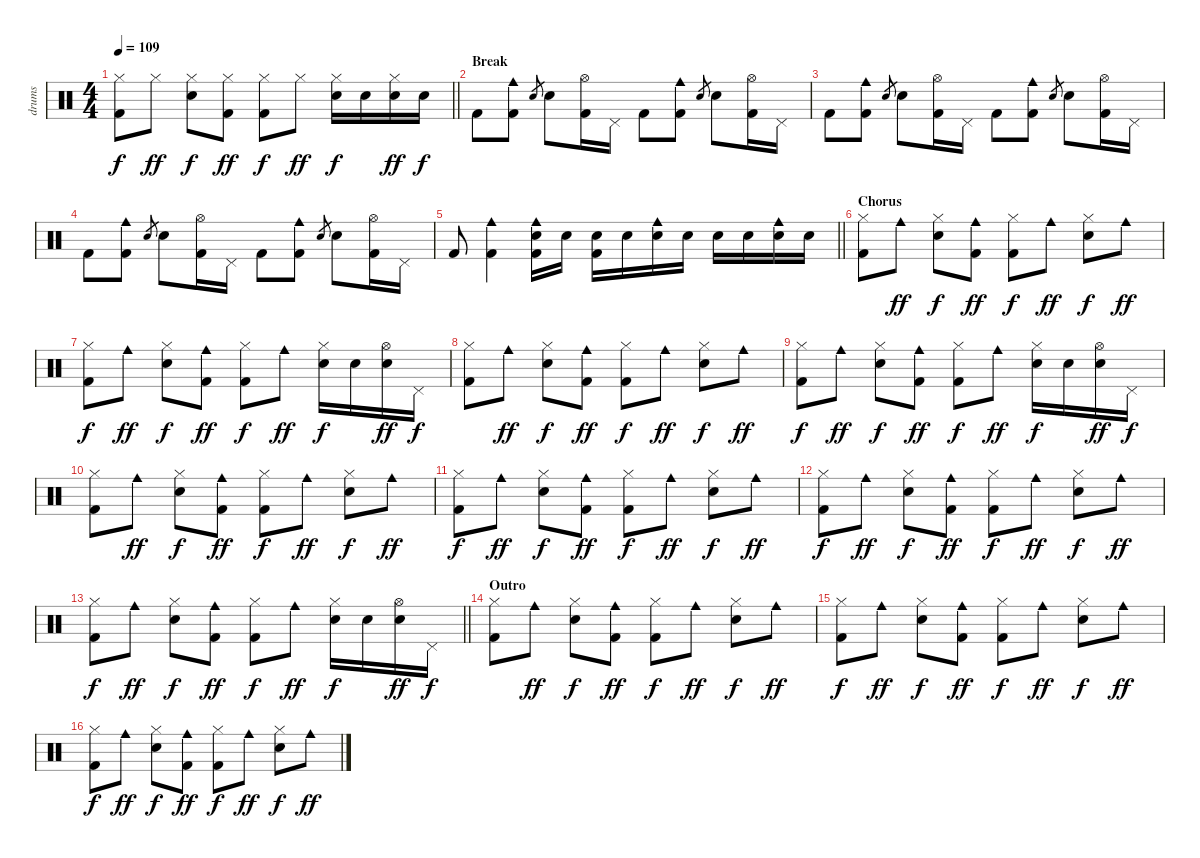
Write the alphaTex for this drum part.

\track ("drums" "drums") {instrument percussion}
\staff {score}
\articulation defaults
\ts (4 4)
\tempo 109
\clef neutral
\barLineRight lightlight
\ks aminor
("Hi-Hat (closed)" "Kick (hit) 2").8{dy f} "Hi-Hat (closed)".8{dy ff} ("Hi-Hat (closed)" "Snare (hit) 2").8{dy f} ("Hi-Hat (closed)" "Kick (hit) 2").8{dy ff} ("Hi-Hat (closed)" "Kick (hit) 2").8{dy f} "Hi-Hat (closed)".8{dy ff} ("Hi-Hat (closed)" "Snare (hit) 2").16{dy f} "Snare (hit) 2".16 ("Hi-Hat (closed)" "Snare (hit) 2").16{dy ff} "Snare (hit) 2".16{dy f} |
\section ("" "Break")
"Kick (hit) 2".8 ("Cowbell medium (hit)" "Kick (hit) 2").8 "Hand Clap (hit)".8{gr} "Hand Clap (hit)".8 ("Hi-Hat (open)" "Kick (hit) 2").16 "Pedal Hi-Hat (hit)".16 "Kick (hit) 2".8 ("Cowbell medium (hit)" "Kick (hit) 2").8 "Hand Clap (hit)".8{gr} "Hand Clap (hit)".8 ("Hi-Hat (open)" "Kick (hit) 2").16 "Pedal Hi-Hat (hit)".16 |
"Kick (hit) 2".8 ("Cowbell medium (hit)" "Kick (hit) 2").8 "Hand Clap (hit)".8{gr} "Hand Clap (hit)".8 ("Hi-Hat (open)" "Kick (hit) 2").16 "Pedal Hi-Hat (hit)".16 "Kick (hit) 2".8 ("Cowbell medium (hit)" "Kick (hit) 2").8 "Hand Clap (hit)".8{gr} "Hand Clap (hit)".8 ("Hi-Hat (open)" "Kick (hit) 2").16 "Pedal Hi-Hat (hit)".16 |
"Kick (hit) 2".8 ("Cowbell medium (hit)" "Kick (hit) 2").8 "Hand Clap (hit)".8{gr} "Hand Clap (hit)".8 ("Hi-Hat (open)" "Kick (hit) 2").16 "Pedal Hi-Hat (hit)".16 "Kick (hit) 2".8 ("Cowbell medium (hit)" "Kick (hit) 2").8 "Hand Clap (hit)".8{gr} "Hand Clap (hit)".8 ("Hi-Hat (open)" "Kick (hit) 2").16 "Pedal Hi-Hat (hit)".16 |
\barLineRight lightlight "Kick (hit) 2".8
("Cowbell medium (hit)" "Kick (hit) 2").4 ("Cowbell medium (hit)" "Snare (hit) 2" "Kick (hit) 2").16 "Snare (hit) 2".16 ("Snare (hit) 2" "Kick (hit) 2").16 "Snare (hit) 2".16 ("Cowbell medium (hit)" "Snare (hit) 2").16 "Snare (hit) 2".16 "Snare (hit) 2".16 "Snare (hit) 2".16 ("Cowbell medium (hit)" "Snare (hit) 2").16 "Snare (hit) 2".16 |
\section ("" "Chorus")
("Hi-Hat (closed)" "Kick (hit) 2").8 "Cowbell medium (hit)".8{dy ff} ("Hi-Hat (closed)" "Snare (hit) 2").8{dy f} ("Cowbell medium (hit)" "Kick (hit) 2").8{dy ff} ("Hi-Hat (closed)" "Kick (hit) 2").8{dy f} "Cowbell medium (hit)".8{dy ff} ("Hi-Hat (closed)" "Snare (hit) 2").8{dy f} "Cowbell medium (hit)".8{dy ff} |
("Hi-Hat (closed)" "Kick (hit) 2").8{dy f} "Cowbell medium (hit)".8{dy ff} ("Hi-Hat (closed)" "Snare (hit) 2").8{dy f} ("Cowbell medium (hit)" "Kick (hit) 2").8{dy ff} ("Hi-Hat (closed)" "Kick (hit) 2").8{dy f} "Cowbell medium (hit)".8{dy ff} ("Hi-Hat (closed)" "Snare (hit) 2").16{dy f} "Snare (hit) 2".16 ("Hi-Hat (open)" "Snare (hit) 2").16{dy ff} "Pedal Hi-Hat (hit)".16{dy f} |
("Hi-Hat (closed)" "Kick (hit) 2").8 "Cowbell medium (hit)".8{dy ff} ("Hi-Hat (closed)" "Snare (hit) 2").8{dy f} ("Cowbell medium (hit)" "Kick (hit) 2").8{dy ff} ("Hi-Hat (closed)" "Kick (hit) 2").8{dy f} "Cowbell medium (hit)".8{dy ff} ("Hi-Hat (closed)" "Snare (hit) 2").8{dy f} "Cowbell medium (hit)".8{dy ff} |
("Hi-Hat (closed)" "Kick (hit) 2").8{dy f} "Cowbell medium (hit)".8{dy ff} ("Hi-Hat (closed)" "Snare (hit) 2").8{dy f} ("Cowbell medium (hit)" "Kick (hit) 2").8{dy ff} ("Hi-Hat (closed)" "Kick (hit) 2").8{dy f} "Cowbell medium (hit)".8{dy ff} ("Hi-Hat (closed)" "Snare (hit) 2").16{dy f} "Snare (hit) 2".16 ("Hi-Hat (open)" "Snare (hit) 2").16{dy ff} "Pedal Hi-Hat (hit)".16{dy f} |
("Hi-Hat (closed)" "Kick (hit) 2").8 "Cowbell medium (hit)".8{dy ff} ("Hi-Hat (closed)" "Snare (hit) 2").8{dy f} ("Cowbell medium (hit)" "Kick (hit) 2").8{dy ff} ("Hi-Hat (closed)" "Kick (hit) 2").8{dy f} "Cowbell medium (hit)".8{dy ff} ("Hi-Hat (closed)" "Snare (hit) 2").8{dy f} "Cowbell medium (hit)".8{dy ff} |
("Hi-Hat (closed)" "Kick (hit) 2").8{dy f} "Cowbell medium (hit)".8{dy ff} ("Hi-Hat (closed)" "Snare (hit) 2").8{dy f} ("Cowbell medium (hit)" "Kick (hit) 2").8{dy ff} ("Hi-Hat (closed)" "Kick (hit) 2").8{dy f} "Cowbell medium (hit)".8{dy ff} ("Hi-Hat (closed)" "Snare (hit) 2").8{dy f} "Cowbell medium (hit)".8{dy ff} |
("Hi-Hat (closed)" "Kick (hit) 2").8{dy f} "Cowbell medium (hit)".8{dy ff} ("Hi-Hat (closed)" "Snare (hit) 2").8{dy f} ("Cowbell medium (hit)" "Kick (hit) 2").8{dy ff} ("Hi-Hat (closed)" "Kick (hit) 2").8{dy f} "Cowbell medium (hit)".8{dy ff} ("Hi-Hat (closed)" "Snare (hit) 2").8{dy f} "Cowbell medium (hit)".8{dy ff} |
\barLineRight lightlight
("Hi-Hat (closed)" "Kick (hit) 2").8{dy f} "Cowbell medium (hit)".8{dy ff} ("Hi-Hat (closed)" "Snare (hit) 2").8{dy f} ("Cowbell medium (hit)" "Kick (hit) 2").8{dy ff} ("Hi-Hat (closed)" "Kick (hit) 2").8{dy f} "Cowbell medium (hit)".8{dy ff} ("Hi-Hat (closed)" "Snare (hit) 2").16{dy f} "Snare (hit) 2".16 ("Hi-Hat (open)" "Snare (hit) 2").16{dy ff} "Pedal Hi-Hat (hit)".16{dy f} |
\section ("" "Outro")
("Hi-Hat (closed)" "Kick (hit) 2").8 "Cowbell medium (hit)".8{dy ff} ("Hi-Hat (closed)" "Snare (hit) 2").8{dy f} ("Cowbell medium (hit)" "Kick (hit) 2").8{dy ff} ("Hi-Hat (closed)" "Kick (hit) 2").8{dy f} "Cowbell medium (hit)".8{dy ff} ("Hi-Hat (closed)" "Snare (hit) 2").8{dy f} "Cowbell medium (hit)".8{dy ff} |
("Hi-Hat (closed)" "Kick (hit) 2").8{dy f} "Cowbell medium (hit)".8{dy ff} ("Hi-Hat (closed)" "Snare (hit) 2").8{dy f} ("Cowbell medium (hit)" "Kick (hit) 2").8{dy ff} ("Hi-Hat (closed)" "Kick (hit) 2").8{dy f} "Cowbell medium (hit)".8{dy ff} ("Hi-Hat (closed)" "Snare (hit) 2").8{dy f} "Cowbell medium (hit)".8{dy ff} |
("Hi-Hat (closed)" "Kick (hit) 2").8{dy f} "Cowbell medium (hit)".8{dy ff} ("Hi-Hat (closed)" "Snare (hit) 2").8{dy f} ("Cowbell medium (hit)" "Kick (hit) 2").8{dy ff} ("Hi-Hat (closed)" "Kick (hit) 2").8{dy f} "Cowbell medium (hit)".8{dy ff} ("Hi-Hat (closed)" "Snare (hit) 2").8{dy f} "Cowbell medium (hit)".8{dy ff}
